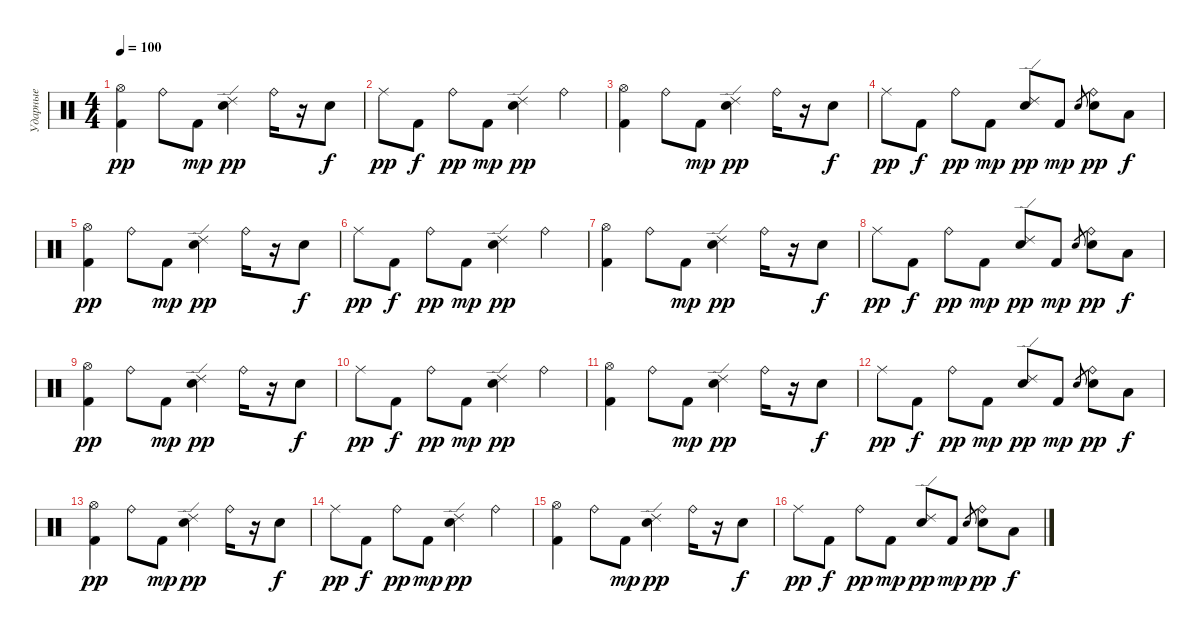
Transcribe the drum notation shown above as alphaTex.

\track ("Ударные" "Ударные") {instrument percussion}
\staff {score}
\articulation defaults
\ts (4 4)
\tempo 100
\clef neutral
\ks c
("Hi-Hat (open)" "Kick (hit) 2").4{dy pp} "Ride (bell)".8 "Kick (hit) 2".8{dy mp} ("Ride (edge) 2" "Electric Snare (hit)").4{dy pp} "Ride (bell)".16 r.16 "Electric Snare (hit)".8{dy f} |
"Ride (middle)".8{dy pp} "Kick (hit) 2".8{dy f} "Ride (bell)".8{dy pp} "Kick (hit) 2".8{dy mp} ("Ride (edge) 2" "Electric Snare (hit)").4{dy pp} "Ride (bell)".4 |
("Hi-Hat (open)" "Kick (hit) 2").4 "Ride (bell)".8 "Kick (hit) 2".8{dy mp} ("Ride (edge) 2" "Electric Snare (hit)").4{dy pp} "Ride (bell)".16 r.16 "Electric Snare (hit)".8{dy f} |
"Ride (middle)".8{dy pp} "Kick (hit) 2".8{dy f} "Ride (bell)".8{dy pp} "Kick (hit) 2".8{dy mp} ("Ride (edge) 2" "Electric Snare (hit)").8{dy pp} "Kick (hit) 2".8{dy mp} "Electric Snare (hit)".8{gr} ("Ride (bell)" "Electric Snare (hit)").8{dy pp} "Low Floor Tom (hit)".8{dy f} |
("Hi-Hat (open)" "Kick (hit) 2").4{dy pp} "Ride (bell)".8 "Kick (hit) 2".8{dy mp} ("Ride (edge) 2" "Electric Snare (hit)").4{dy pp} "Ride (bell)".16 r.16 "Electric Snare (hit)".8{dy f} |
"Ride (middle)".8{dy pp} "Kick (hit) 2".8{dy f} "Ride (bell)".8{dy pp} "Kick (hit) 2".8{dy mp} ("Ride (edge) 2" "Electric Snare (hit)").4{dy pp} "Ride (bell)".4 |
("Hi-Hat (open)" "Kick (hit) 2").4 "Ride (bell)".8 "Kick (hit) 2".8{dy mp} ("Ride (edge) 2" "Electric Snare (hit)").4{dy pp} "Ride (bell)".16 r.16 "Electric Snare (hit)".8{dy f} |
"Ride (middle)".8{dy pp} "Kick (hit) 2".8{dy f} "Ride (bell)".8{dy pp} "Kick (hit) 2".8{dy mp} ("Ride (edge) 2" "Electric Snare (hit)").8{dy pp} "Kick (hit) 2".8{dy mp} "Electric Snare (hit)".8{gr} ("Ride (bell)" "Electric Snare (hit)").8{dy pp} "Low Floor Tom (hit)".8{dy f} |
("Hi-Hat (open)" "Kick (hit) 2").4{dy pp} "Ride (bell)".8 "Kick (hit) 2".8{dy mp} ("Ride (edge) 2" "Electric Snare (hit)").4{dy pp} "Ride (bell)".16 r.16 "Electric Snare (hit)".8{dy f} |
"Ride (middle)".8{dy pp} "Kick (hit) 2".8{dy f} "Ride (bell)".8{dy pp} "Kick (hit) 2".8{dy mp} ("Ride (edge) 2" "Electric Snare (hit)").4{dy pp} "Ride (bell)".4 |
("Hi-Hat (open)" "Kick (hit) 2").4 "Ride (bell)".8 "Kick (hit) 2".8{dy mp} ("Ride (edge) 2" "Electric Snare (hit)").4{dy pp} "Ride (bell)".16 r.16 "Electric Snare (hit)".8{dy f} |
"Ride (middle)".8{dy pp} "Kick (hit) 2".8{dy f} "Ride (bell)".8{dy pp} "Kick (hit) 2".8{dy mp} ("Ride (edge) 2" "Electric Snare (hit)").8{dy pp} "Kick (hit) 2".8{dy mp} "Electric Snare (hit)".8{gr} ("Ride (bell)" "Electric Snare (hit)").8{dy pp} "Low Floor Tom (hit)".8{dy f} |
("Hi-Hat (open)" "Kick (hit) 2").4{dy pp} "Ride (bell)".8 "Kick (hit) 2".8{dy mp} ("Ride (edge) 2" "Electric Snare (hit)").4{dy pp} "Ride (bell)".16 r.16 "Electric Snare (hit)".8{dy f} |
"Ride (middle)".8{dy pp} "Kick (hit) 2".8{dy f} "Ride (bell)".8{dy pp} "Kick (hit) 2".8{dy mp} ("Ride (edge) 2" "Electric Snare (hit)").4{dy pp} "Ride (bell)".4 |
("Hi-Hat (open)" "Kick (hit) 2").4 "Ride (bell)".8 "Kick (hit) 2".8{dy mp} ("Ride (edge) 2" "Electric Snare (hit)").4{dy pp} "Ride (bell)".16 r.16 "Electric Snare (hit)".8{dy f} |
"Ride (middle)".8{dy pp} "Kick (hit) 2".8{dy f} "Ride (bell)".8{dy pp} "Kick (hit) 2".8{dy mp} ("Ride (edge) 2" "Electric Snare (hit)").8{dy pp} "Kick (hit) 2".8{dy mp} "Electric Snare (hit)".8{gr} ("Ride (bell)" "Electric Snare (hit)").8{dy pp} "Low Floor Tom (hit)".8{dy f}
